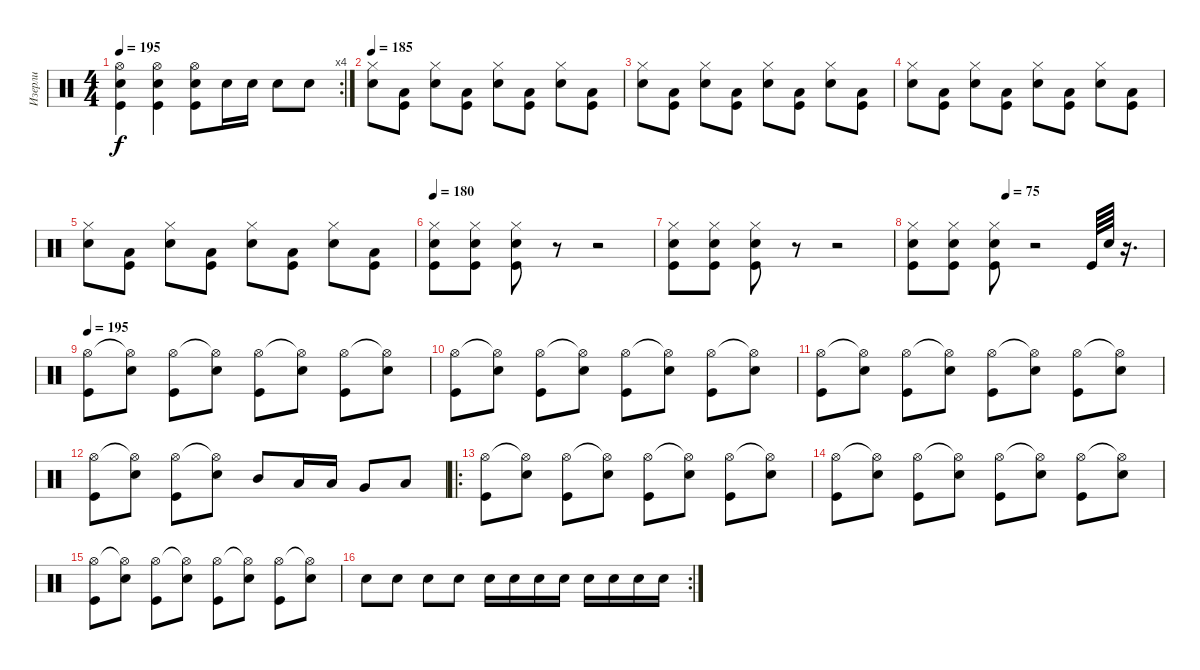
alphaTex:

\track ("Изерли" "Изерли") {instrument percussion}
\staff {score}
\articulation defaults
\rc 4
\ts (4 4)
\tempo 195
\clef neutral
\ks c
("Snare (hit) 2" "Kick (hit)" "Hi-Hat (open)").4{dy f} ("Snare (hit) 2" "Hi-Hat (open)" "Kick (hit)").4 ("Snare (hit) 2" "Hi-Hat (open)" "Kick (hit)").8 "Snare (hit) 2".16 "Snare (hit) 2".16 "Snare (hit) 2".8 "Snare (hit) 2".8 |
\tempo 185
("Snare (hit) 2" "Hi-Hat (closed)").8 ("Kick (hit)" "Low Floor Tom (hit)").8 ("Snare (hit) 2" "Hi-Hat (closed)").8 ("Kick (hit)" "Low Floor Tom (hit)").8 ("Snare (hit) 2" "Hi-Hat (closed)").8 ("Kick (hit)" "Low Floor Tom (hit)").8 ("Snare (hit) 2" "Hi-Hat (closed)").8 ("Kick (hit)" "Low Floor Tom (hit)").8 |
("Snare (hit) 2" "Hi-Hat (closed)").8 ("Kick (hit)" "Low Floor Tom (hit)").8 ("Snare (hit) 2" "Hi-Hat (closed)").8 ("Kick (hit)" "Low Floor Tom (hit)").8 ("Snare (hit) 2" "Hi-Hat (closed)").8 ("Kick (hit)" "Low Floor Tom (hit)").8 ("Snare (hit) 2" "Hi-Hat (closed)").8 ("Kick (hit)" "Low Floor Tom (hit)").8 |
("Snare (hit) 2" "Hi-Hat (closed)").8 ("Kick (hit)" "Low Floor Tom (hit)").8 ("Snare (hit) 2" "Hi-Hat (closed)").8 ("Kick (hit)" "Low Floor Tom (hit)").8 ("Snare (hit) 2" "Hi-Hat (closed)").8 ("Kick (hit)" "Low Floor Tom (hit)").8 ("Snare (hit) 2" "Hi-Hat (closed)").8 ("Kick (hit)" "Low Floor Tom (hit)").8 |
("Snare (hit) 2" "Hi-Hat (closed)").8 ("Kick (hit)" "Low Floor Tom (hit)").8 ("Snare (hit) 2" "Hi-Hat (closed)").8 ("Kick (hit)" "Low Floor Tom (hit)").8 ("Snare (hit) 2" "Hi-Hat (closed)").8 ("Kick (hit)" "Low Floor Tom (hit)").8 ("Snare (hit) 2" "Hi-Hat (closed)").8 ("Kick (hit)" "Low Floor Tom (hit)").8 |
\tempo 180
("Snare (hit) 2" "Hi-Hat (closed)" "Kick (hit)").8 ("Snare (hit) 2" "Hi-Hat (closed)" "Kick (hit)").8 ("Snare (hit) 2" "Hi-Hat (closed)" "Kick (hit)").8 r.8 r.2 |
("Snare (hit) 2" "Hi-Hat (closed)" "Kick (hit)").8 ("Snare (hit) 2" "Hi-Hat (closed)" "Kick (hit)").8 ("Snare (hit) 2" "Hi-Hat (closed)" "Kick (hit)").8 r.8 r.2 |
\tempo (75 0.375)
("Snare (hit) 2" "Hi-Hat (closed)" "Kick (hit)").8 ("Snare (hit) 2" "Hi-Hat (closed)" "Kick (hit)").8 ("Snare (hit) 2" "Hi-Hat (closed)" "Kick (hit)").8 r.2 "Kick (hit)".64 "Snare (hit) 2".64 r.16{d} |
\tempo 195
("Kick (hit)" "Hi-Hat (open)").8 ("Snare (hit) 2" "Hi-Hat (open)"{t}).8 ("Kick (hit)" "Hi-Hat (open)").8 ("Snare (hit) 2" "Hi-Hat (open)"{t}).8 ("Kick (hit)" "Hi-Hat (open)").8 ("Snare (hit) 2" "Hi-Hat (open)"{t}).8 ("Kick (hit)" "Hi-Hat (open)").8 ("Snare (hit) 2" "Hi-Hat (open)"{t}).8 |
("Kick (hit)" "Hi-Hat (open)").8 ("Snare (hit) 2" "Hi-Hat (open)"{t}).8 ("Kick (hit)" "Hi-Hat (open)").8 ("Snare (hit) 2" "Hi-Hat (open)"{t}).8 ("Kick (hit)" "Hi-Hat (open)").8 ("Snare (hit) 2" "Hi-Hat (open)"{t}).8 ("Kick (hit)" "Hi-Hat (open)").8 ("Snare (hit) 2" "Hi-Hat (open)"{t}).8 |
("Kick (hit)" "Hi-Hat (open)").8 ("Snare (hit) 2" "Hi-Hat (open)"{t}).8 ("Kick (hit)" "Hi-Hat (open)").8 ("Snare (hit) 2" "Hi-Hat (open)"{t}).8 ("Kick (hit)" "Hi-Hat (open)").8 ("Snare (hit) 2" "Hi-Hat (open)"{t}).8 ("Kick (hit)" "Hi-Hat (open)").8 ("Snare (hit) 2" "Hi-Hat (open)"{t}).8 |
("Kick (hit)" "Hi-Hat (open)").8 ("Snare (hit) 2" "Hi-Hat (open)"{t}).8 ("Kick (hit)" "Hi-Hat (open)").8 ("Snare (hit) 2" "Hi-Hat (open)"{t}).8 "Mid Tom (hit)".8{balance 6} "Low Tom (hit)".16 "Low Tom (hit)".16 "Very Low Tom (hit)".8 "Low Floor Tom (hit)".8 |
\ro
("Kick (hit)" "Hi-Hat (open)").8{balance 8} ("Snare (hit) 2" "Hi-Hat (open)"{t}).8 ("Kick (hit)" "Hi-Hat (open)").8 ("Snare (hit) 2" "Hi-Hat (open)"{t}).8 ("Kick (hit)" "Hi-Hat (open)").8 ("Snare (hit) 2" "Hi-Hat (open)"{t}).8 ("Kick (hit)" "Hi-Hat (open)").8 ("Snare (hit) 2" "Hi-Hat (open)"{t}).8 |
("Kick (hit)" "Hi-Hat (open)").8 ("Snare (hit) 2" "Hi-Hat (open)"{t}).8 ("Kick (hit)" "Hi-Hat (open)").8 ("Snare (hit) 2" "Hi-Hat (open)"{t}).8 ("Kick (hit)" "Hi-Hat (open)").8 ("Snare (hit) 2" "Hi-Hat (open)"{t}).8 ("Kick (hit)" "Hi-Hat (open)").8 ("Snare (hit) 2" "Hi-Hat (open)"{t}).8 |
("Kick (hit)" "Hi-Hat (open)").8 ("Snare (hit) 2" "Hi-Hat (open)"{t}).8 ("Kick (hit)" "Hi-Hat (open)").8 ("Snare (hit) 2" "Hi-Hat (open)"{t}).8 ("Kick (hit)" "Hi-Hat (open)").8 ("Snare (hit) 2" "Hi-Hat (open)"{t}).8 ("Kick (hit)" "Hi-Hat (open)").8 ("Snare (hit) 2" "Hi-Hat (open)"{t}).8 |
\rc 2 "Snare (hit) 2".8 "Snare (hit) 2".8 "Snare (hit) 2".8 "Snare (hit) 2".8 "Snare (hit) 2".16 "Snare (hit) 2".16 "Snare (hit) 2".16 "Snare (hit) 2".16 "Snare (hit) 2".16 "Snare (hit) 2".16 "Snare (hit) 2".16 "Snare (hit) 2".16
